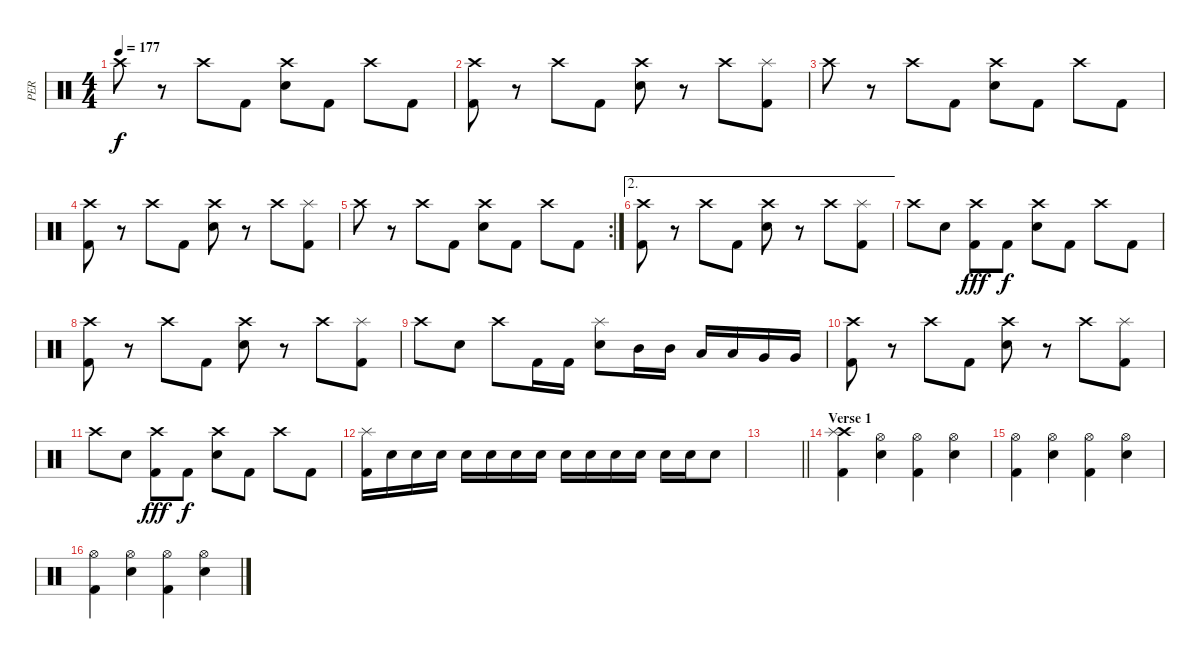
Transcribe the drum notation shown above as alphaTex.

\track ("PER" "PER") {instrument percussion}
\staff {score}
\articulation defaults
\ts (4 4)
\tempo 177
\clef neutral
\ks c "Crash high (hit)".8{dy f}
r.8 "Crash high (hit)".8 "Kick (hit) 2".8 ("Crash high (hit)" "Electric Snare (hit)").8 "Kick (hit) 2".8 "Crash high (hit)".8 "Kick (hit) 2".8 |
("Crash high (hit)" "Kick (hit) 2").8 r.8 "Crash high (hit)".8 "Kick (hit) 2".8 ("Crash high (hit)" "Electric Snare (hit)").8 r.8 "Crash high (hit)".8 ("Splash (hit)" "Kick (hit) 2").8 |
"Crash high (hit)".8 r.8 "Crash high (hit)".8 "Kick (hit) 2".8 ("Crash high (hit)" "Electric Snare (hit)").8 "Kick (hit) 2".8 "Crash high (hit)".8 "Kick (hit) 2".8 |
("Crash high (hit)" "Kick (hit) 2").8 r.8 "Crash high (hit)".8 "Kick (hit) 2".8 ("Crash high (hit)" "Electric Snare (hit)").8 r.8 "Crash high (hit)".8 ("Splash (hit)" "Kick (hit) 2").8 |
\rc 2 "Crash high (hit)".8
r.8 "Crash high (hit)".8 "Kick (hit) 2".8 ("Crash high (hit)" "Electric Snare (hit)").8 "Kick (hit) 2".8 "Crash high (hit)".8 "Kick (hit) 2".8 |
\ae 2
("Crash high (hit)" "Kick (hit) 2").8 r.8 "Crash high (hit)".8 "Kick (hit) 2".8 ("Crash high (hit)" "Electric Snare (hit)").8 r.8 "Crash high (hit)".8 ("Splash (hit)" "Kick (hit) 2").8 |
"Crash high (hit)".8 "Electric Snare (hit)".8 ("Crash high (hit)" "Kick (hit) 2").8{dy fff} "Kick (hit) 2".8{dy f} ("Crash high (hit)" "Electric Snare (hit)").8 "Kick (hit) 2".8 "Crash high (hit)".8 "Kick (hit) 2".8 |
("Crash high (hit)" "Kick (hit) 2").8 r.8 "Crash high (hit)".8 "Kick (hit) 2".8 ("Crash high (hit)" "Electric Snare (hit)").8 r.8 "Crash high (hit)".8 ("Splash (hit)" "Kick (hit) 2").8 |
"Crash high (hit)".8 "Electric Snare (hit)".8 "Crash high (hit)".8 "Kick (hit) 2".16 "Kick (hit) 2".16 ("Splash (hit)" "Electric Snare (hit)").8 "Mid Tom (hit)".16 "Mid Tom (hit)".16 "Low Tom (hit)".16 "Low Tom (hit)".16 "Very Low Tom (hit)".16 "Very Low Tom (hit)".16 |
("Crash high (hit)" "Kick (hit) 2").8 r.8 "Crash high (hit)".8 "Kick (hit) 2".8 ("Crash high (hit)" "Electric Snare (hit)").8 r.8 "Crash high (hit)".8 ("Splash (hit)" "Kick (hit) 2").8 |
"Crash high (hit)".8 "Electric Snare (hit)".8 ("Crash high (hit)" "Kick (hit) 2").8{dy fff} "Kick (hit) 2".8{dy f} ("Crash high (hit)" "Electric Snare (hit)").8 "Kick (hit) 2".8 "Crash high (hit)".8 "Kick (hit) 2".8 |
("Splash (hit)" "Kick (hit) 2").16 "Electric Snare (hit)".16 "Electric Snare (hit)".16 "Electric Snare (hit)".16 "Electric Snare (hit)".16 "Electric Snare (hit)".16 "Electric Snare (hit)".16 "Electric Snare (hit)".16 "Electric Snare (hit)".16 "Electric Snare (hit)".16 "Electric Snare (hit)".16 "Electric Snare (hit)".16 "Electric Snare (hit)".16 "Electric Snare (hit)".16 "Electric Snare (hit)".8 |
\barLineRight lightlight
|
\section ("" "Verse 1")
("Crash high (hit)" "Splash (hit)" "Kick (hit) 2").4 ("Hi-Hat (open)" "Electric Snare (hit)").4 ("Hi-Hat (open)" "Kick (hit) 2").4 ("Hi-Hat (open)" "Electric Snare (hit)").4 |
("Hi-Hat (open)" "Kick (hit) 2").4 ("Hi-Hat (open)" "Electric Snare (hit)").4 ("Hi-Hat (open)" "Kick (hit) 2").4 ("Hi-Hat (open)" "Electric Snare (hit)").4 |
("Hi-Hat (open)" "Kick (hit) 2").4 ("Hi-Hat (open)" "Electric Snare (hit)").4 ("Hi-Hat (open)" "Kick (hit) 2").4 ("Hi-Hat (open)" "Electric Snare (hit)").4
